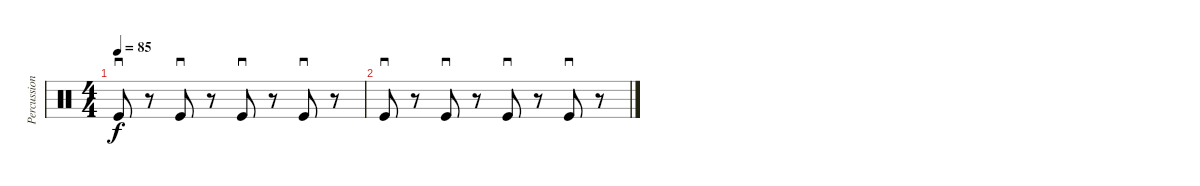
\track ("Percussions" "Percussion") {instrument percussion}
\staff {score}
\articulation defaults
\ts (4 4)
\tempo 85
\clef neutral
\ks c "Kick (hit)".8{sd dy f}
r.8 "Kick (hit)".8{sd} r.8 "Kick (hit)".8{sd} r.8 "Kick (hit)".8{sd} r.8 |
"Kick (hit)".8{sd} r.8 "Kick (hit)".8{sd} r.8 "Kick (hit)".8{sd} r.8 "Kick (hit)".8{sd} r.8
